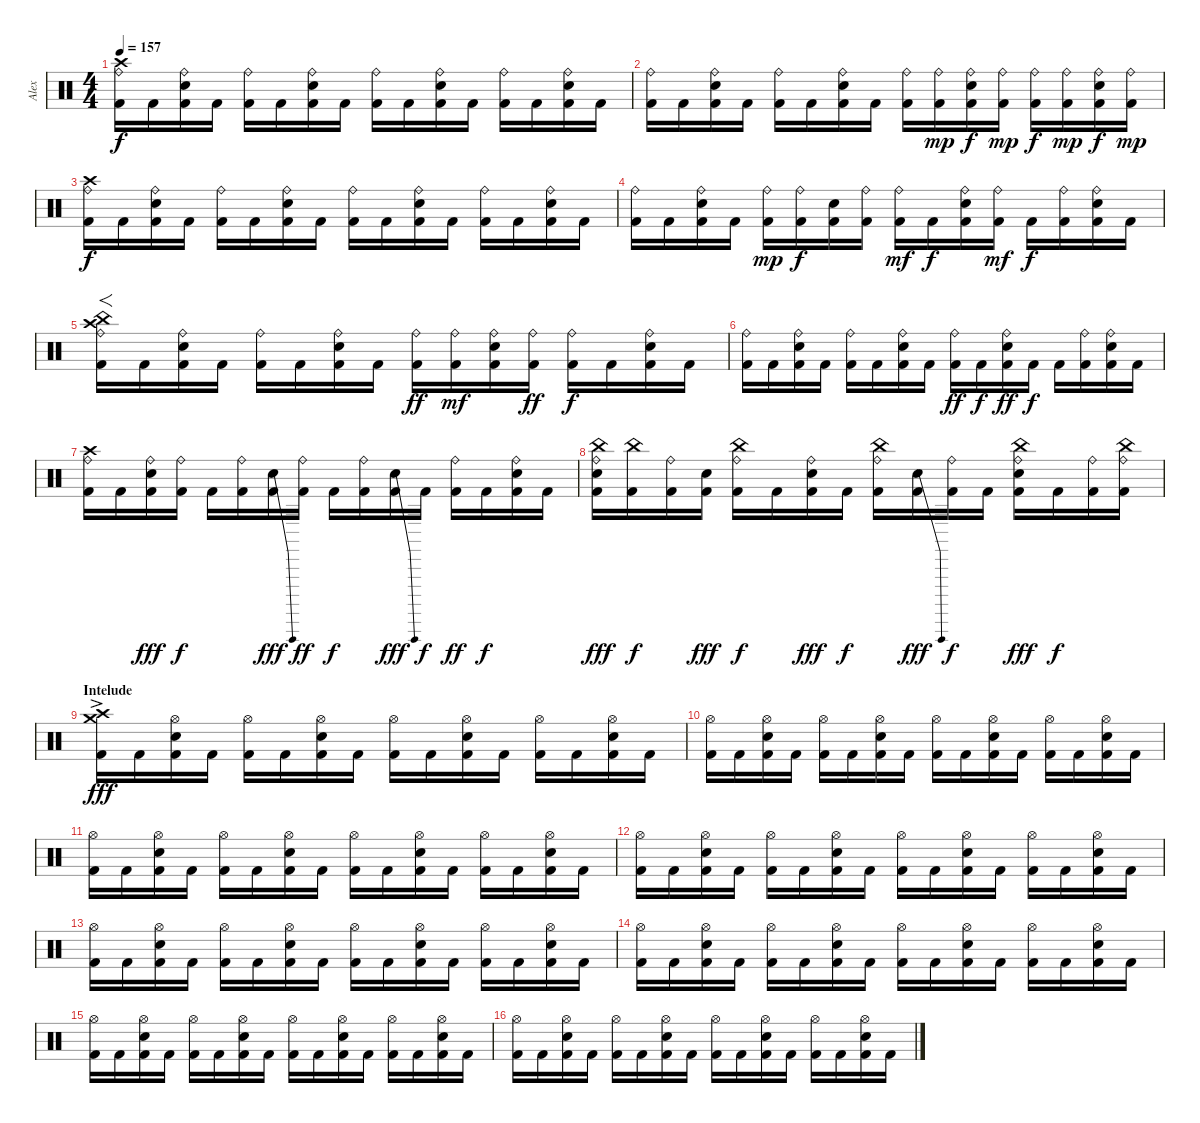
\track ("Alex" "Alex") {instrument percussion}
\staff {score}
\articulation defaults
\ts (4 4)
\tempo 157
\clef neutral
\ks c
("Crash high (hit)" "Ride (bell)" "Kick (hit) 2").16{dy f} "Kick (hit) 2".16 ("Ride (bell)" "Electric Snare (hit)" "Kick (hit) 2").16 "Kick (hit) 2".16 ("Ride (bell)" "Kick (hit) 2").16 "Kick (hit) 2".16 ("Ride (bell)" "Electric Snare (hit)" "Kick (hit) 2").16 "Kick (hit) 2".16 ("Ride (bell)" "Kick (hit) 2").16 "Kick (hit) 2".16 ("Ride (bell)" "Electric Snare (hit)" "Kick (hit) 2").16 "Kick (hit) 2".16 ("Ride (bell)" "Kick (hit) 2").16 "Kick (hit) 2".16 ("Ride (bell)" "Electric Snare (hit)" "Kick (hit) 2").16 "Kick (hit) 2".16 |
("Ride (bell)" "Kick (hit) 2").16 "Kick (hit) 2".16 ("Ride (bell)" "Electric Snare (hit)" "Kick (hit) 2").16 "Kick (hit) 2".16 ("Ride (bell)" "Kick (hit) 2").16 "Kick (hit) 2".16 ("Ride (bell)" "Electric Snare (hit)" "Kick (hit) 2").16 "Kick (hit) 2".16 ("Ride (bell)" "Kick (hit) 2").16 ("Ride (bell)" "Kick (hit) 2").16{dy mp} ("Ride (bell)" "Electric Snare (hit)" "Kick (hit) 2").16{dy f} ("Ride (bell)" "Kick (hit) 2").16{dy mp} ("Ride (bell)" "Kick (hit) 2").16{dy f} ("Ride (bell)" "Kick (hit) 2").16{dy mp} ("Ride (bell)" "Electric Snare (hit)" "Kick (hit) 2").16{dy f} ("Ride (bell)" "Kick (hit) 2").16{dy mp} |
("Crash high (hit)" "Ride (bell)" "Kick (hit) 2").16{dy f} "Kick (hit) 2".16 ("Ride (bell)" "Electric Snare (hit)" "Kick (hit) 2").16 "Kick (hit) 2".16 ("Ride (bell)" "Kick (hit) 2").16 "Kick (hit) 2".16 ("Ride (bell)" "Electric Snare (hit)" "Kick (hit) 2").16 "Kick (hit) 2".16 ("Ride (bell)" "Kick (hit) 2").16 "Kick (hit) 2".16 ("Ride (bell)" "Electric Snare (hit)" "Kick (hit) 2").16 "Kick (hit) 2".16 ("Ride (bell)" "Kick (hit) 2").16 "Kick (hit) 2".16 ("Ride (bell)" "Electric Snare (hit)" "Kick (hit) 2").16 "Kick (hit) 2".16 |
("Ride (bell)" "Kick (hit) 2").16 "Kick (hit) 2".16 ("Ride (bell)" "Electric Snare (hit)" "Kick (hit) 2").16 "Kick (hit) 2".16 ("Ride (bell)" "Kick (hit) 2").16{dy mp} ("Ride (bell)" "Kick (hit) 2").16{dy f} ("Electric Snare (hit)" "Kick (hit) 2").16 ("Ride (bell)" "Kick (hit) 2").16 ("Ride (bell)" "Kick (hit) 2").16{dy mf} "Kick (hit) 2".16{dy f} ("Ride (bell)" "Electric Snare (hit)" "Kick (hit) 2").16 ("Ride (bell)" "Kick (hit) 2").16{dy mf} "Kick (hit) 2".16{dy f} ("Ride (bell)" "Kick (hit) 2").16 ("Ride (bell)" "Electric Snare (hit)" "Kick (hit) 2").16 "Kick (hit) 2".16 |
("Crash high (hit)" "China (hit)" "Ride (bell)" "Kick (hit) 2").16{f} "Kick (hit) 2".16 ("Ride (bell)" "Electric Snare (hit)" "Kick (hit) 2").16 "Kick (hit) 2".16 ("Ride (bell)" "Kick (hit) 2").16 "Kick (hit) 2".16 ("Ride (bell)" "Electric Snare (hit)" "Kick (hit) 2").16 "Kick (hit) 2".16 ("Ride (bell)" "Kick (hit) 2").16{dy ff} ("Ride (bell)" "Kick (hit) 2").16{dy mf} ("Ride (bell)" "Electric Snare (hit)" "Kick (hit) 2").16 ("Ride (bell)" "Kick (hit) 2").16{dy ff} ("Ride (bell)" "Kick (hit) 2").16{dy f} "Kick (hit) 2".16 ("Ride (bell)" "Electric Snare (hit)" "Kick (hit) 2").16 "Kick (hit) 2".16 |
("Ride (bell)" "Kick (hit) 2").16 "Kick (hit) 2".16 ("Ride (bell)" "Electric Snare (hit)" "Kick (hit) 2").16 "Kick (hit) 2".16 ("Ride (bell)" "Kick (hit) 2").16 "Kick (hit) 2".16 ("Ride (bell)" "Electric Snare (hit)" "Kick (hit) 2").16 "Kick (hit) 2".16 ("Ride (bell)" "Kick (hit) 2").16{dy ff} "Kick (hit) 2".16{dy f} ("Ride (bell)" "Electric Snare (hit)" "Kick (hit) 2").16{dy ff} "Kick (hit) 2".16{dy f} "Kick (hit) 2".16 ("Ride (bell)" "Kick (hit) 2").16 ("Ride (bell)" "Electric Snare (hit)" "Kick (hit) 2").16 "Kick (hit) 2".16 |
("Crash high (hit)" "Ride (bell)" "Kick (hit) 2").16 "Kick (hit) 2".16 ("Ride (bell)" "Electric Snare (hit)" "Kick (hit) 2").16{dy fff} ("Ride (bell)" "Kick (hit) 2").16{dy f} "Kick (hit) 2".16 ("Ride (bell)" "Kick (hit) 2").16 ("Electric Snare (hit)"{be (bend 0 0 60 12)} "Kick (hit) 2").16{dy fff} ("Ride (bell)" "Kick (hit) 2").16{dy ff} "Kick (hit) 2".16{dy f} ("Ride (bell)" "Kick (hit) 2").16 ("Electric Snare (hit)"{be (bend 0 0 60 12)} "Kick (hit) 2").16{dy fff} "Kick (hit) 2".16{dy f} ("Ride (bell)" "Kick (hit) 2").16{dy ff} "Kick (hit) 2".16{dy f} ("Ride (bell)" "Electric Snare (hit)" "Kick (hit) 2").16 "Kick (hit) 2".16 |
("China (hit)" "Ride (bell)" "Electric Snare (hit)" "Kick (hit) 2").16{dy fff} ("China (hit)" "Kick (hit) 2").16{dy f} ("Ride (bell)" "Kick (hit) 2").16 ("Electric Snare (hit)" "Kick (hit) 2").16{dy fff} ("China (hit)" "Ride (bell)" "Kick (hit) 2").16{dy f} "Kick (hit) 2".16 ("Ride (bell)" "Electric Snare (hit)" "Kick (hit) 2").16{dy fff} "Kick (hit) 2".16{dy f} ("China (hit)" "Ride (bell)" "Kick (hit) 2").16 ("Electric Snare (hit)"{be (bend 0 0 60 12)} "Kick (hit) 2").16{dy fff} ("Ride (bell)" "Kick (hit) 2").16{dy f} "Kick (hit) 2".16 ("China (hit)" "Ride (bell)" "Electric Snare (hit)" "Kick (hit) 2").16{dy fff} "Kick (hit) 2".16{dy f} ("Ride (bell)" "Kick (hit) 2").16 ("China (hit)" "Ride (bell)" "Kick (hit) 2").16 |
\section ("" "Intelude")
("Crash medium (hit)"{ac} "Crash high (hit)" "Kick (hit) 2").16{dy fff} "Kick (hit) 2".16 ("Hi-Hat (open)" "Electric Snare (hit)" "Kick (hit) 2").16 "Kick (hit) 2".16 ("Hi-Hat (open)" "Kick (hit) 2").16 "Kick (hit) 2".16 ("Hi-Hat (open)" "Electric Snare (hit)" "Kick (hit) 2").16 "Kick (hit) 2".16 ("Hi-Hat (open)" "Kick (hit) 2").16 "Kick (hit) 2".16 ("Hi-Hat (open)" "Electric Snare (hit)" "Kick (hit) 2").16 "Kick (hit) 2".16 ("Hi-Hat (open)" "Kick (hit) 2").16 "Kick (hit) 2".16 ("Hi-Hat (open)" "Electric Snare (hit)" "Kick (hit) 2").16 "Kick (hit) 2".16 |
("Hi-Hat (open)" "Kick (hit) 2").16 "Kick (hit) 2".16 ("Hi-Hat (open)" "Electric Snare (hit)" "Kick (hit) 2").16 "Kick (hit) 2".16 ("Hi-Hat (open)" "Kick (hit) 2").16 "Kick (hit) 2".16 ("Hi-Hat (open)" "Electric Snare (hit)" "Kick (hit) 2").16 "Kick (hit) 2".16 ("Hi-Hat (open)" "Kick (hit) 2").16 "Kick (hit) 2".16 ("Hi-Hat (open)" "Electric Snare (hit)" "Kick (hit) 2").16 "Kick (hit) 2".16 ("Hi-Hat (open)" "Kick (hit) 2").16 "Kick (hit) 2".16 ("Hi-Hat (open)" "Electric Snare (hit)" "Kick (hit) 2").16 "Kick (hit) 2".16 |
("Hi-Hat (open)" "Kick (hit) 2").16 "Kick (hit) 2".16 ("Hi-Hat (open)" "Electric Snare (hit)" "Kick (hit) 2").16 "Kick (hit) 2".16 ("Hi-Hat (open)" "Kick (hit) 2").16 "Kick (hit) 2".16 ("Hi-Hat (open)" "Electric Snare (hit)" "Kick (hit) 2").16 "Kick (hit) 2".16 ("Hi-Hat (open)" "Kick (hit) 2").16 "Kick (hit) 2".16 ("Hi-Hat (open)" "Electric Snare (hit)" "Kick (hit) 2").16 "Kick (hit) 2".16 ("Hi-Hat (open)" "Kick (hit) 2").16 "Kick (hit) 2".16 ("Hi-Hat (open)" "Electric Snare (hit)" "Kick (hit) 2").16 "Kick (hit) 2".16 |
("Hi-Hat (open)" "Kick (hit) 2").16 "Kick (hit) 2".16 ("Hi-Hat (open)" "Electric Snare (hit)" "Kick (hit) 2").16 "Kick (hit) 2".16 ("Hi-Hat (open)" "Kick (hit) 2").16 "Kick (hit) 2".16 ("Hi-Hat (open)" "Electric Snare (hit)" "Kick (hit) 2").16 "Kick (hit) 2".16 ("Hi-Hat (open)" "Kick (hit) 2").16 "Kick (hit) 2".16 ("Hi-Hat (open)" "Electric Snare (hit)" "Kick (hit) 2").16 "Kick (hit) 2".16 ("Hi-Hat (open)" "Kick (hit) 2").16 "Kick (hit) 2".16 ("Hi-Hat (open)" "Electric Snare (hit)" "Kick (hit) 2").16 "Kick (hit) 2".16 |
("Hi-Hat (open)" "Kick (hit) 2").16 "Kick (hit) 2".16 ("Hi-Hat (open)" "Electric Snare (hit)" "Kick (hit) 2").16 "Kick (hit) 2".16 ("Hi-Hat (open)" "Kick (hit) 2").16 "Kick (hit) 2".16 ("Hi-Hat (open)" "Electric Snare (hit)" "Kick (hit) 2").16 "Kick (hit) 2".16 ("Hi-Hat (open)" "Kick (hit) 2").16 "Kick (hit) 2".16 ("Hi-Hat (open)" "Electric Snare (hit)" "Kick (hit) 2").16 "Kick (hit) 2".16 ("Hi-Hat (open)" "Kick (hit) 2").16 "Kick (hit) 2".16 ("Hi-Hat (open)" "Electric Snare (hit)" "Kick (hit) 2").16 "Kick (hit) 2".16 |
("Hi-Hat (open)" "Kick (hit) 2").16 "Kick (hit) 2".16 ("Hi-Hat (open)" "Electric Snare (hit)" "Kick (hit) 2").16 "Kick (hit) 2".16 ("Hi-Hat (open)" "Kick (hit) 2").16 "Kick (hit) 2".16 ("Hi-Hat (open)" "Electric Snare (hit)" "Kick (hit) 2").16 "Kick (hit) 2".16 ("Hi-Hat (open)" "Kick (hit) 2").16 "Kick (hit) 2".16 ("Hi-Hat (open)" "Electric Snare (hit)" "Kick (hit) 2").16 "Kick (hit) 2".16 ("Hi-Hat (open)" "Kick (hit) 2").16 "Kick (hit) 2".16 ("Hi-Hat (open)" "Electric Snare (hit)" "Kick (hit) 2").16 "Kick (hit) 2".16 |
("Hi-Hat (open)" "Kick (hit) 2").16 "Kick (hit) 2".16 ("Hi-Hat (open)" "Electric Snare (hit)" "Kick (hit) 2").16 "Kick (hit) 2".16 ("Hi-Hat (open)" "Kick (hit) 2").16 "Kick (hit) 2".16 ("Hi-Hat (open)" "Electric Snare (hit)" "Kick (hit) 2").16 "Kick (hit) 2".16 ("Hi-Hat (open)" "Kick (hit) 2").16 "Kick (hit) 2".16 ("Hi-Hat (open)" "Electric Snare (hit)" "Kick (hit) 2").16 "Kick (hit) 2".16 ("Hi-Hat (open)" "Kick (hit) 2").16 "Kick (hit) 2".16 ("Hi-Hat (open)" "Electric Snare (hit)" "Kick (hit) 2").16 "Kick (hit) 2".16 |
("Hi-Hat (open)" "Kick (hit) 2").16 "Kick (hit) 2".16 ("Hi-Hat (open)" "Electric Snare (hit)" "Kick (hit) 2").16 "Kick (hit) 2".16 ("Hi-Hat (open)" "Kick (hit) 2").16 "Kick (hit) 2".16 ("Hi-Hat (open)" "Electric Snare (hit)" "Kick (hit) 2").16 "Kick (hit) 2".16 ("Hi-Hat (open)" "Kick (hit) 2").16 "Kick (hit) 2".16 ("Hi-Hat (open)" "Electric Snare (hit)" "Kick (hit) 2").16 "Kick (hit) 2".16 ("Hi-Hat (open)" "Kick (hit) 2").16 "Kick (hit) 2".16 ("Hi-Hat (open)" "Electric Snare (hit)" "Kick (hit) 2").16 "Kick (hit) 2".16
